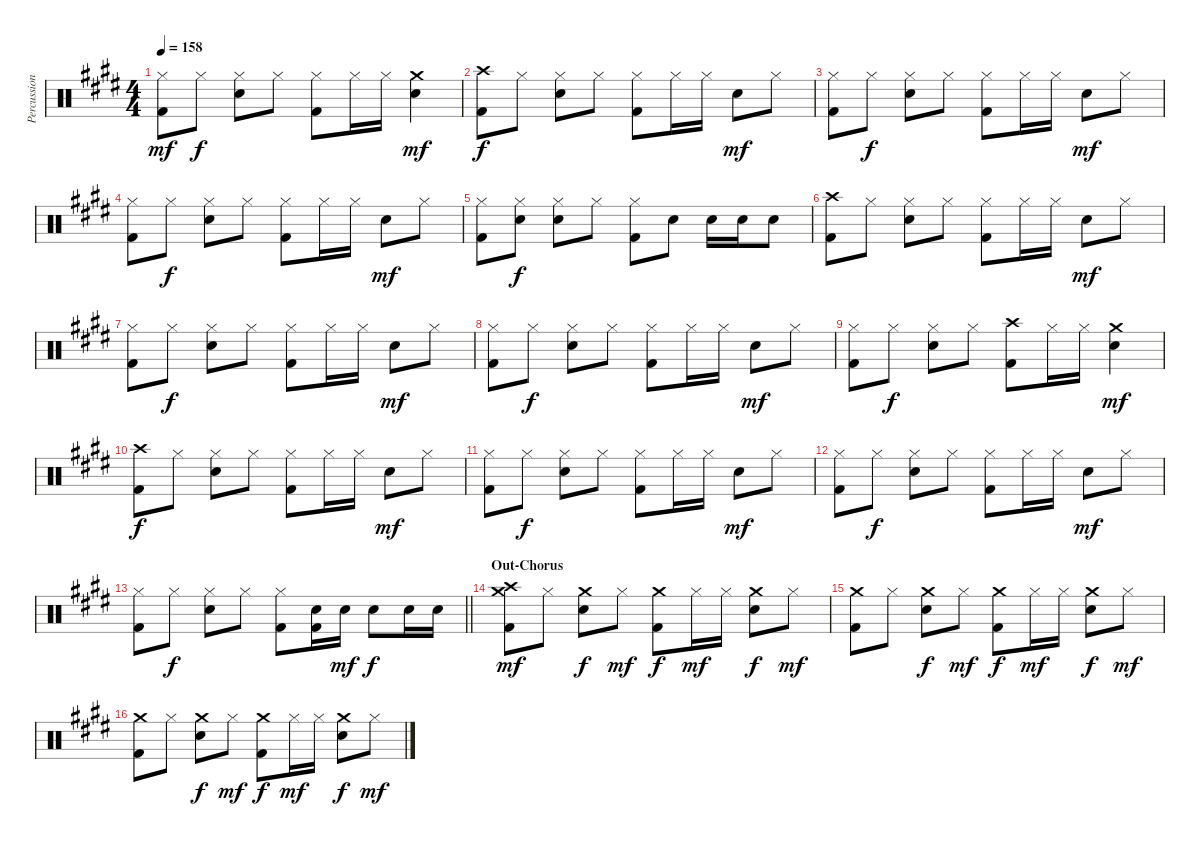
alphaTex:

\track ("Percussion" "Percussion") {instrument percussion}
\staff {score}
\articulation defaults
\ts (4 4)
\tempo 158
\clef neutral
\ks e
("Hi-Hat (closed)" "Kick (hit) 2").8{dy mf} "Hi-Hat (closed)".8{dy f} ("Hi-Hat (closed)" "Snare (hit) 2").8 "Hi-Hat (closed)".8 ("Hi-Hat (closed)" "Kick (hit) 2").8 "Hi-Hat (closed)".16 "Hi-Hat (closed)".16 ("Crash medium (hit)" "Snare (hit) 2").4{dy mf} |
("Crash high (hit)" "Kick (hit) 2").8{dy f} "Hi-Hat (closed)".8 ("Hi-Hat (closed)" "Snare (hit) 2").8 "Hi-Hat (closed)".8 ("Hi-Hat (closed)" "Kick (hit) 2").8 "Hi-Hat (closed)".16 "Hi-Hat (closed)".16 "Snare (hit) 2".8{dy mf} "Hi-Hat (closed)".8 |
("Hi-Hat (closed)" "Kick (hit) 2").8 "Hi-Hat (closed)".8{dy f} ("Hi-Hat (closed)" "Snare (hit) 2").8 "Hi-Hat (closed)".8 ("Hi-Hat (closed)" "Kick (hit) 2").8 "Hi-Hat (closed)".16 "Hi-Hat (closed)".16 "Snare (hit) 2".8{dy mf} "Hi-Hat (closed)".8 |
("Hi-Hat (closed)" "Kick (hit) 2").8 "Hi-Hat (closed)".8{dy f} ("Hi-Hat (closed)" "Snare (hit) 2").8 "Hi-Hat (closed)".8 ("Hi-Hat (closed)" "Kick (hit) 2").8 "Hi-Hat (closed)".16 "Hi-Hat (closed)".16 "Snare (hit) 2".8{dy mf} "Hi-Hat (closed)".8 |
("Hi-Hat (closed)" "Kick (hit) 2").8 ("Hi-Hat (closed)" "Snare (hit) 2").8{dy f} ("Hi-Hat (closed)" "Snare (hit) 2").8 "Hi-Hat (closed)".8 ("Hi-Hat (closed)" "Kick (hit) 2").8 "Snare (hit) 2".8 "Snare (hit) 2".16 "Snare (hit) 2".16 "Snare (hit) 2".8 |
("Crash high (hit)" "Kick (hit) 2").8 "Hi-Hat (closed)".8 ("Hi-Hat (closed)" "Snare (hit) 2").8 "Hi-Hat (closed)".8 ("Hi-Hat (closed)" "Kick (hit) 2").8 "Hi-Hat (closed)".16 "Hi-Hat (closed)".16 "Snare (hit) 2".8{dy mf} "Hi-Hat (closed)".8 |
("Hi-Hat (closed)" "Kick (hit) 2").8 "Hi-Hat (closed)".8{dy f} ("Hi-Hat (closed)" "Snare (hit) 2").8 "Hi-Hat (closed)".8 ("Hi-Hat (closed)" "Kick (hit) 2").8 "Hi-Hat (closed)".16 "Hi-Hat (closed)".16 "Snare (hit) 2".8{dy mf} "Hi-Hat (closed)".8 |
("Hi-Hat (closed)" "Kick (hit) 2").8 "Hi-Hat (closed)".8{dy f} ("Hi-Hat (closed)" "Snare (hit) 2").8 "Hi-Hat (closed)".8 ("Hi-Hat (closed)" "Kick (hit) 2").8 "Hi-Hat (closed)".16 "Hi-Hat (closed)".16 "Snare (hit) 2".8{dy mf} "Hi-Hat (closed)".8 |
("Hi-Hat (closed)" "Kick (hit) 2").8 "Hi-Hat (closed)".8{dy f} ("Hi-Hat (closed)" "Snare (hit) 2").8 "Hi-Hat (closed)".8 ("Crash high (hit)" "Kick (hit) 2").8 "Hi-Hat (closed)".16 "Hi-Hat (closed)".16 ("Crash medium (hit)" "Snare (hit) 2").4{dy mf} |
("Crash high (hit)" "Kick (hit) 2").8{dy f} "Hi-Hat (closed)".8 ("Hi-Hat (closed)" "Snare (hit) 2").8 "Hi-Hat (closed)".8 ("Hi-Hat (closed)" "Kick (hit) 2").8 "Hi-Hat (closed)".16 "Hi-Hat (closed)".16 "Snare (hit) 2".8{dy mf} "Hi-Hat (closed)".8 |
("Hi-Hat (closed)" "Kick (hit) 2").8 "Hi-Hat (closed)".8{dy f} ("Hi-Hat (closed)" "Snare (hit) 2").8 "Hi-Hat (closed)".8 ("Hi-Hat (closed)" "Kick (hit) 2").8 "Hi-Hat (closed)".16 "Hi-Hat (closed)".16 "Snare (hit) 2".8{dy mf} "Hi-Hat (closed)".8 |
("Hi-Hat (closed)" "Kick (hit) 2").8 "Hi-Hat (closed)".8{dy f} ("Hi-Hat (closed)" "Snare (hit) 2").8 "Hi-Hat (closed)".8 ("Hi-Hat (closed)" "Kick (hit) 2").8 "Hi-Hat (closed)".16 "Hi-Hat (closed)".16 "Snare (hit) 2".8{dy mf} "Hi-Hat (closed)".8 |
\barLineRight lightlight
("Hi-Hat (closed)" "Kick (hit) 2").8 "Hi-Hat (closed)".8{dy f} ("Hi-Hat (closed)" "Snare (hit) 2").8 "Hi-Hat (closed)".8 ("Hi-Hat (closed)" "Kick (hit) 2").8 ("Snare (hit) 2" "Kick (hit) 2").16 "Snare (hit) 2".16{dy mf} "Snare (hit) 2".8{dy f} "Snare (hit) 2".16 "Snare (hit) 2".16 |
\section ("" "Out-Chorus")
("Crash high (hit)" "Crash medium (hit)" "Kick (hit) 2").8{dy mf} "Hi-Hat (closed)".8 ("Crash medium (hit)" "Snare (hit) 2").8{dy f} "Hi-Hat (closed)".8{dy mf} ("Crash medium (hit)" "Kick (hit) 2").8{dy f} "Hi-Hat (closed)".16{dy mf} "Hi-Hat (closed)".16 ("Crash medium (hit)" "Snare (hit) 2").8{dy f} "Hi-Hat (closed)".8{dy mf} |
("Crash medium (hit)" "Kick (hit) 2").8 "Hi-Hat (closed)".8 ("Crash medium (hit)" "Snare (hit) 2").8{dy f} "Hi-Hat (closed)".8{dy mf} ("Crash medium (hit)" "Kick (hit) 2").8{dy f} "Hi-Hat (closed)".16{dy mf} "Hi-Hat (closed)".16 ("Crash medium (hit)" "Snare (hit) 2").8{dy f} "Hi-Hat (closed)".8{dy mf} |
("Crash medium (hit)" "Kick (hit) 2").8 "Hi-Hat (closed)".8 ("Crash medium (hit)" "Snare (hit) 2").8{dy f} "Hi-Hat (closed)".8{dy mf} ("Crash medium (hit)" "Kick (hit) 2").8{dy f} "Hi-Hat (closed)".16{dy mf} "Hi-Hat (closed)".16 ("Crash medium (hit)" "Snare (hit) 2").8{dy f} "Hi-Hat (closed)".8{dy mf}
